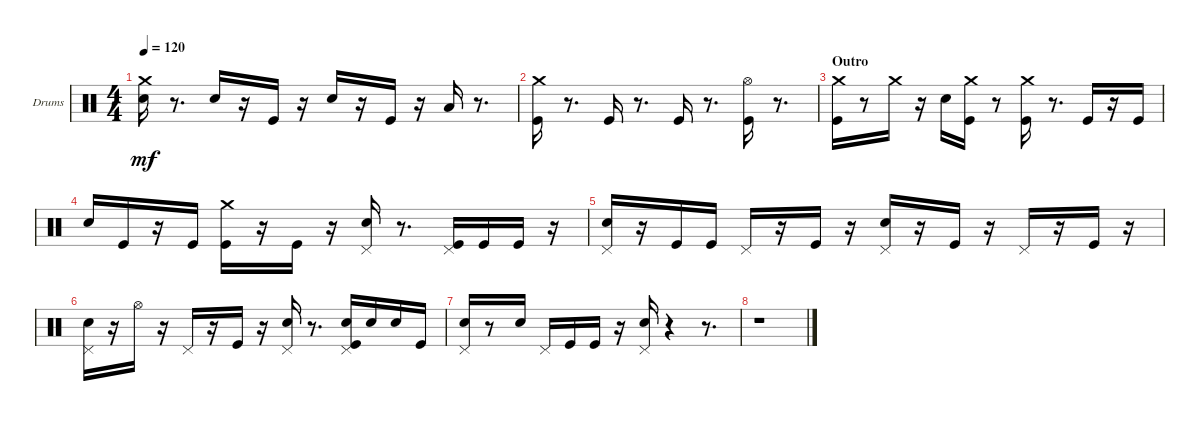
\bracketExtendMode groupsimilarinstruments
\firstSystemTrackNameOrientation horizontal
\otherSystemsTrackNameOrientation horizontal
\track ("Drumkit" "Drums") {instrument percussion}
\staff {score}
\articulation defaults
\ts (4 4)
\tempo 120
\clef neutral
\ks aminor
("Snare (hit) 2" "Crash medium (hit)").16{dy mf} r.8{d} "Snare (hit) 2".16 r.16 "Kick (hit)".16 r.16 "Snare (hit) 2".16 r.16 "Kick (hit)".16 r.16 "Low Tom (hit)".16 r.8{d} |
("Kick (hit)" "Crash medium (hit)").16 r.8{d} "Kick (hit)".16 r.8{d} "Kick (hit)".16 r.8{d} ("Kick (hit)" "Hi-Hat (open)").16 r.8{d} |
\section ("" "Outro")
("Kick (hit)" "Crash medium (hit)").16 r.8 "Crash medium (hit)".16 r.16 "Snare (hit) 2".16 ("Kick (hit)" "Crash medium (hit)").16 r.8 ("Kick (hit)" "Crash medium (hit)").16 r.8{d} "Kick (hit)".16 r.16 "Kick (hit)".16 |
"Snare (hit) 2".16 "Kick (hit)".16 r.16 "Kick (hit)".16 ("Kick (hit)" "Crash medium (hit)").16 r.16 "Kick (hit)".16 r.16 ("Snare (hit) 2" "Pedal Hi-Hat (hit)").16 r.8{d} ("Kick (hit)" "Pedal Hi-Hat (hit)").16 "Kick (hit)".16 "Kick (hit)".16 r.16 |
("Snare (hit) 2" "Pedal Hi-Hat (hit)").16 r.16 "Kick (hit)".16 "Kick (hit)".16 "Pedal Hi-Hat (hit)".16 r.16 "Kick (hit)".16 r.16 ("Snare (hit) 2" "Pedal Hi-Hat (hit)").16 r.16 "Kick (hit)".16 r.16 "Pedal Hi-Hat (hit)".16 r.16 "Kick (hit)".16 r.16 |
("Snare (hit) 2" "Pedal Hi-Hat (hit)").16 r.16 "Hi-Hat (open)".16 r.16 "Pedal Hi-Hat (hit)".16 r.16 "Kick (hit)".16 r.16 ("Snare (hit) 2" "Pedal Hi-Hat (hit)").16 r.8{d} ("Kick (hit)" "Snare (hit) 2" "Pedal Hi-Hat (hit)").16 "Snare (hit) 2".16 "Snare (hit) 2".16 "Kick (hit)".16 |
("Snare (hit) 2" "Pedal Hi-Hat (hit)").16 r.8 "Snare (hit) 2".16 "Pedal Hi-Hat (hit)".16 "Kick (hit)".16 "Kick (hit)".16 r.16 ("Snare (hit) 2" "Pedal Hi-Hat (hit)").16 r.4 r.8{d} |
r.1
